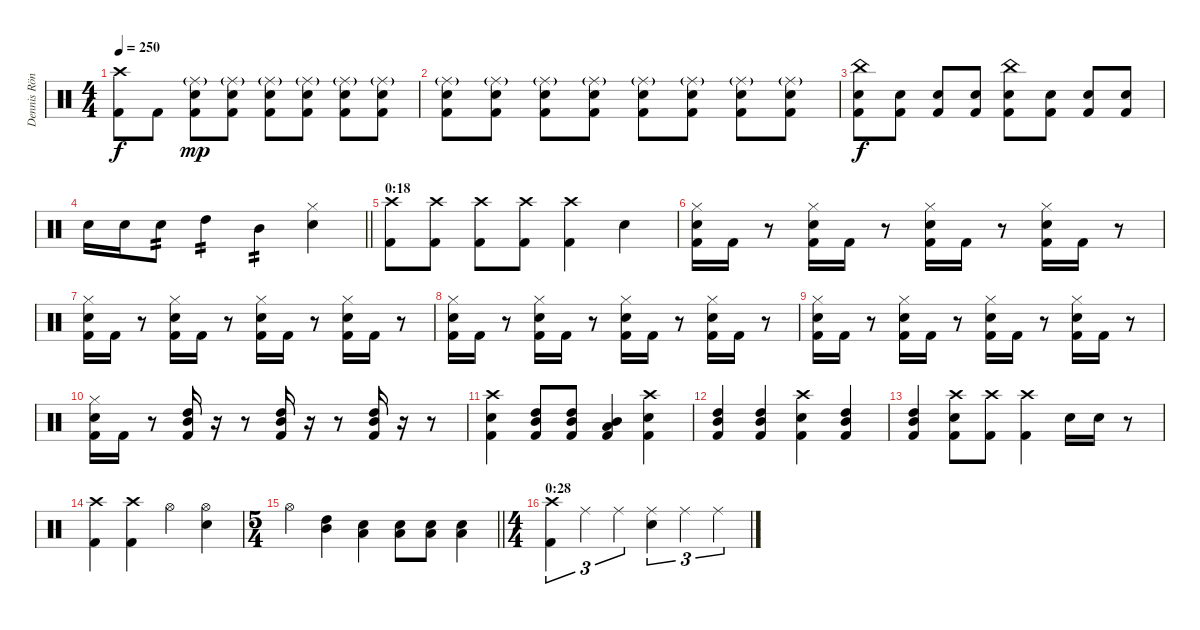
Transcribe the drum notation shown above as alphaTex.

\track ("Dennis Röndum" "Dennis Rön") {instrument percussion}
\staff {score}
\articulation defaults
\ts (4 4)
\tempo 250
\clef neutral
\ks c
("Crash high (hit)" "Kick (hit) 2").8{dy f} "Kick (hit) 2".8 ("Snare (hit) 2" "Ride (middle)"{g} "Kick (hit) 2").8{dy mp} ("Snare (hit) 2" "Ride (middle)"{g} "Kick (hit) 2").8 ("Snare (hit) 2" "Ride (middle)"{g} "Kick (hit) 2").8 ("Snare (hit) 2" "Ride (middle)"{g} "Kick (hit) 2").8 ("Snare (hit) 2" "Ride (middle)"{g} "Kick (hit) 2").8 ("Snare (hit) 2" "Ride (middle)"{g} "Kick (hit) 2").8 |
("Snare (hit) 2" "Ride (middle)"{g} "Kick (hit) 2").8 ("Snare (hit) 2" "Ride (middle)"{g} "Kick (hit) 2").8 ("Snare (hit) 2" "Ride (middle)"{g} "Kick (hit) 2").8 ("Snare (hit) 2" "Ride (middle)"{g} "Kick (hit) 2").8 ("Snare (hit) 2" "Ride (middle)"{g} "Kick (hit) 2").8 ("Snare (hit) 2" "Ride (middle)"{g} "Kick (hit) 2").8 ("Snare (hit) 2" "Ride (middle)"{g} "Kick (hit) 2").8 ("Snare (hit) 2" "Ride (middle)"{g} "Kick (hit) 2").8 |
("Snare (hit) 2" "China (hit)" "Kick (hit) 2").8{dy f} ("Snare (hit) 2" "Kick (hit) 2").8 ("Snare (hit) 2" "Kick (hit) 2").8 ("Snare (hit) 2" "Kick (hit) 2").8 ("Snare (hit) 2" "China (hit)" "Kick (hit) 2").8 ("Snare (hit) 2" "Kick (hit) 2").8 ("Snare (hit) 2" "Kick (hit) 2").8 ("Snare (hit) 2" "Kick (hit) 2").8 |
\barLineRight lightlight "Snare (hit) 2".16 "Snare (hit) 2".16 "Snare (hit) 2".8{tp 2} "High Tom (hit)".4{tp 2} "Mid Tom (hit)".4{tp 2}
("Hi-Hat (closed)" "Snare (hit) 2").4 |
\section ("" "0:18")
("Crash high (hit)" "Kick (hit) 2").8 ("Crash high (hit)" "Kick (hit) 2").8 ("Crash high (hit)" "Kick (hit) 2").8 ("Crash high (hit)" "Kick (hit) 2").8 ("Crash high (hit)" "Kick (hit) 2").4 "Snare (hit) 2".4 |
("Hi-Hat (closed)" "Snare (hit) 2" "Kick (hit) 2").16 "Kick (hit) 2".16 r.8 ("Hi-Hat (closed)" "Snare (hit) 2" "Kick (hit) 2").16 "Kick (hit) 2".16 r.8 ("Hi-Hat (closed)" "Snare (hit) 2" "Kick (hit) 2").16 "Kick (hit) 2".16 r.8 ("Hi-Hat (closed)" "Snare (hit) 2" "Kick (hit) 2").16 "Kick (hit) 2".16 r.8 |
("Hi-Hat (closed)" "Snare (hit) 2" "Kick (hit) 2").16 "Kick (hit) 2".16 r.8 ("Hi-Hat (closed)" "Snare (hit) 2" "Kick (hit) 2").16 "Kick (hit) 2".16 r.8 ("Hi-Hat (closed)" "Snare (hit) 2" "Kick (hit) 2").16 "Kick (hit) 2".16 r.8 ("Hi-Hat (closed)" "Snare (hit) 2" "Kick (hit) 2").16 "Kick (hit) 2".16 r.8 |
("Hi-Hat (closed)" "Snare (hit) 2" "Kick (hit) 2").16 "Kick (hit) 2".16 r.8 ("Hi-Hat (closed)" "Snare (hit) 2" "Kick (hit) 2").16 "Kick (hit) 2".16 r.8 ("Hi-Hat (closed)" "Snare (hit) 2" "Kick (hit) 2").16 "Kick (hit) 2".16 r.8 ("Hi-Hat (closed)" "Snare (hit) 2" "Kick (hit) 2").16 "Kick (hit) 2".16 r.8 |
("Hi-Hat (closed)" "Snare (hit) 2" "Kick (hit) 2").16 "Kick (hit) 2".16 r.8 ("Hi-Hat (closed)" "Snare (hit) 2" "Kick (hit) 2").16 "Kick (hit) 2".16 r.8 ("Hi-Hat (closed)" "Snare (hit) 2" "Kick (hit) 2").16 "Kick (hit) 2".16 r.8 ("Hi-Hat (closed)" "Snare (hit) 2" "Kick (hit) 2").16 "Kick (hit) 2".16 r.8 |
("Hi-Hat (closed)" "Snare (hit) 2" "Kick (hit) 2").16 "Kick (hit) 2".16 r.8 ("Mid Tom (hit)" "High Tom (hit)" "Kick (hit) 2").16 r.16 r.8 ("Mid Tom (hit)" "High Tom (hit)" "Kick (hit) 2").16 r.16 r.8 ("Mid Tom (hit)" "High Tom (hit)" "Kick (hit) 2").16 r.16 r.8 |
("Crash high (hit)" "Snare (hit) 2" "Kick (hit) 2").4 ("Mid Tom (hit)" "High Tom (hit)" "Kick (hit) 2").8 ("Mid Tom (hit)" "High Tom (hit)" "Kick (hit) 2").8 ("Low Floor Tom (hit)" "Mid Tom (hit)" "Kick (hit) 2").4 ("Crash high (hit)" "Snare (hit) 2" "Kick (hit) 2").4 |
("Mid Tom (hit)" "High Tom (hit)" "Kick (hit) 2").4 ("Mid Tom (hit)" "High Tom (hit)" "Kick (hit) 2").4 ("Crash high (hit)" "Snare (hit) 2" "Kick (hit) 2").4 ("Mid Tom (hit)" "High Tom (hit)" "Kick (hit) 2").4 |
("Mid Tom (hit)" "High Tom (hit)" "Kick (hit) 2").4 ("Crash high (hit)" "Snare (hit) 2" "Kick (hit) 2").8 ("Crash high (hit)" "Kick (hit) 2").8 ("Crash high (hit)" "Kick (hit) 2").4 "Snare (hit) 2".16 "Snare (hit) 2".16 r.8 |
("Crash high (hit)" "Kick (hit) 2").4 ("Crash high (hit)" "Kick (hit) 2").4 "Hi-Hat (open)".4 ("Hi-Hat (open)" "Snare (hit) 2").4 |
\ts (5 4)
\barLineRight lightlight "Hi-Hat (open)".4
("High Tom (hit)" "Mid Tom (hit)").4 ("Low Floor Tom (hit)" "Snare (hit) 2").4 ("Low Floor Tom (hit)" "Snare (hit) 2").8 ("Low Floor Tom (hit)" "Snare (hit) 2").8 ("Low Floor Tom (hit)" "Snare (hit) 2").4 |
\ts (4 4)
\section ("" "0:28")
("Crash high (hit)" "Kick (hit) 2").4{tu (3 2)} "Ride (middle)".4{tu (3 2)} "Ride (middle)".4{tu (3 2)} ("Ride (middle)" "Snare (hit) 2").4{tu (3 2)} "Ride (middle)".4{tu (3 2)} "Ride (middle)".4{tu (3 2)}
